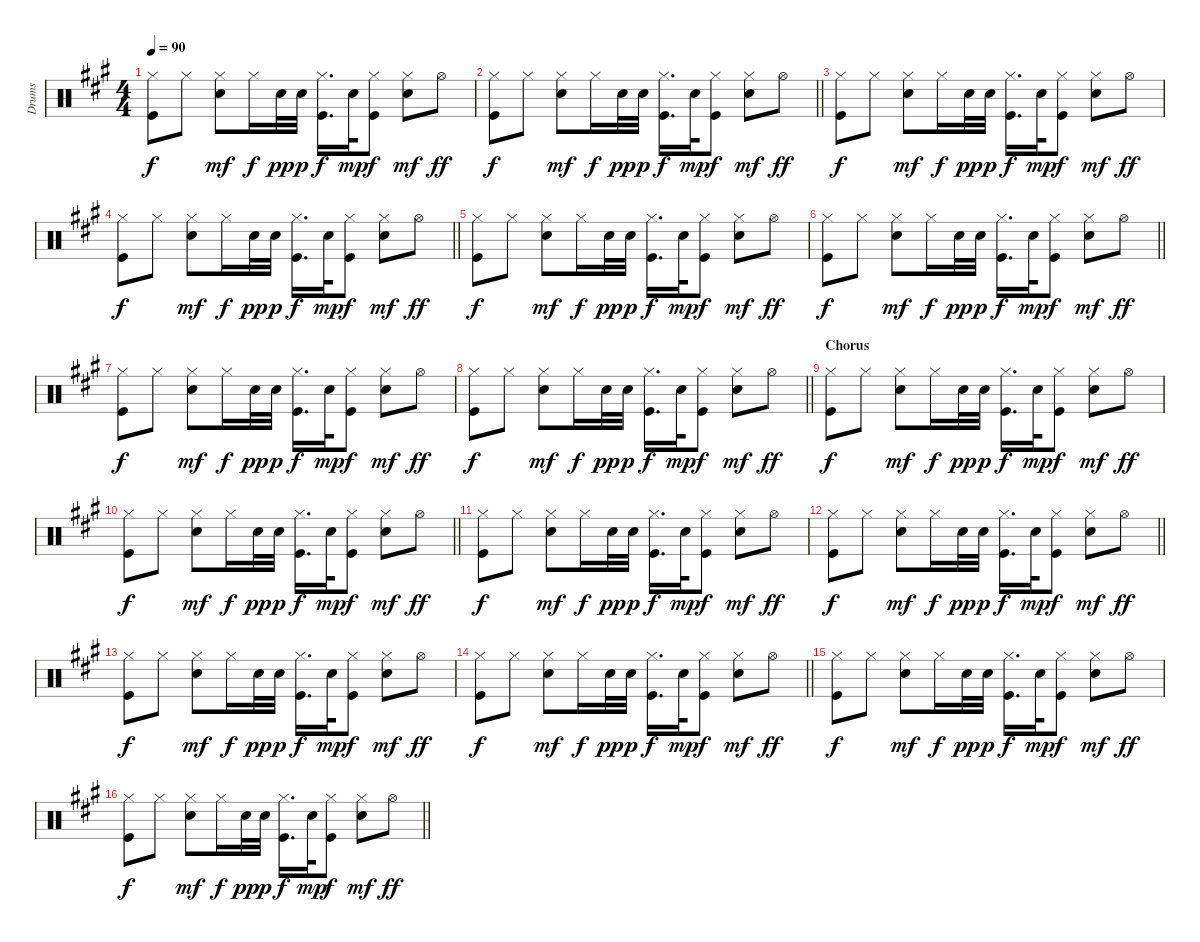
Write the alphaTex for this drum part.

\track ("Drums" "Drums") {instrument percussion}
\staff {score}
\articulation defaults
\ts (4 4)
\tempo 90
\clef neutral
\ks a
("Hi-Hat (closed)" "Kick (hit)").8{dy f} "Hi-Hat (closed)".8 ("Hi-Hat (closed)" "Snare (hit) 2").8{dy mf} "Hi-Hat (closed)".16{dy f} "Snare (hit) 2".32{dy pp} "Snare (hit) 2".32{dy p} ("Hi-Hat (closed)" "Kick (hit)").16{d dy f} "Snare (hit) 2".32{dy mp} ("Hi-Hat (closed)" "Kick (hit)").8{dy f} ("Hi-Hat (closed)" "Snare (hit) 2").8{dy mf} "Hi-Hat (open)".8{dy ff} |
\barLineRight lightlight
("Hi-Hat (closed)" "Kick (hit)").8{dy f} "Hi-Hat (closed)".8 ("Hi-Hat (closed)" "Snare (hit) 2").8{dy mf} "Hi-Hat (closed)".16{dy f} "Snare (hit) 2".32{dy pp} "Snare (hit) 2".32{dy p} ("Hi-Hat (closed)" "Kick (hit)").16{d dy f} "Snare (hit) 2".32{dy mp} ("Hi-Hat (closed)" "Kick (hit)").8{dy f} ("Hi-Hat (closed)" "Snare (hit) 2").8{dy mf} "Hi-Hat (open)".8{dy ff} |
("Hi-Hat (closed)" "Kick (hit)").8{dy f} "Hi-Hat (closed)".8 ("Hi-Hat (closed)" "Snare (hit) 2").8{dy mf} "Hi-Hat (closed)".16{dy f} "Snare (hit) 2".32{dy pp} "Snare (hit) 2".32{dy p} ("Hi-Hat (closed)" "Kick (hit)").16{d dy f} "Snare (hit) 2".32{dy mp} ("Hi-Hat (closed)" "Kick (hit)").8{dy f} ("Hi-Hat (closed)" "Snare (hit) 2").8{dy mf} "Hi-Hat (open)".8{dy ff} |
\barLineRight lightlight
("Hi-Hat (closed)" "Kick (hit)").8{dy f} "Hi-Hat (closed)".8 ("Hi-Hat (closed)" "Snare (hit) 2").8{dy mf} "Hi-Hat (closed)".16{dy f} "Snare (hit) 2".32{dy pp} "Snare (hit) 2".32{dy p} ("Hi-Hat (closed)" "Kick (hit)").16{d dy f} "Snare (hit) 2".32{dy mp} ("Hi-Hat (closed)" "Kick (hit)").8{dy f} ("Hi-Hat (closed)" "Snare (hit) 2").8{dy mf} "Hi-Hat (open)".8{dy ff} |
("Hi-Hat (closed)" "Kick (hit)").8{dy f} "Hi-Hat (closed)".8 ("Hi-Hat (closed)" "Snare (hit) 2").8{dy mf} "Hi-Hat (closed)".16{dy f} "Snare (hit) 2".32{dy pp} "Snare (hit) 2".32{dy p} ("Hi-Hat (closed)" "Kick (hit)").16{d dy f} "Snare (hit) 2".32{dy mp} ("Hi-Hat (closed)" "Kick (hit)").8{dy f} ("Hi-Hat (closed)" "Snare (hit) 2").8{dy mf} "Hi-Hat (open)".8{dy ff} |
\barLineRight lightlight
("Hi-Hat (closed)" "Kick (hit)").8{dy f} "Hi-Hat (closed)".8 ("Hi-Hat (closed)" "Snare (hit) 2").8{dy mf} "Hi-Hat (closed)".16{dy f} "Snare (hit) 2".32{dy pp} "Snare (hit) 2".32{dy p} ("Hi-Hat (closed)" "Kick (hit)").16{d dy f} "Snare (hit) 2".32{dy mp} ("Hi-Hat (closed)" "Kick (hit)").8{dy f} ("Hi-Hat (closed)" "Snare (hit) 2").8{dy mf} "Hi-Hat (open)".8{dy ff} |
("Hi-Hat (closed)" "Kick (hit)").8{dy f} "Hi-Hat (closed)".8 ("Hi-Hat (closed)" "Snare (hit) 2").8{dy mf} "Hi-Hat (closed)".16{dy f} "Snare (hit) 2".32{dy pp} "Snare (hit) 2".32{dy p} ("Hi-Hat (closed)" "Kick (hit)").16{d dy f} "Snare (hit) 2".32{dy mp} ("Hi-Hat (closed)" "Kick (hit)").8{dy f} ("Hi-Hat (closed)" "Snare (hit) 2").8{dy mf} "Hi-Hat (open)".8{dy ff} |
\barLineRight lightlight
("Hi-Hat (closed)" "Kick (hit)").8{dy f} "Hi-Hat (closed)".8 ("Hi-Hat (closed)" "Snare (hit) 2").8{dy mf} "Hi-Hat (closed)".16{dy f} "Snare (hit) 2".32{dy pp} "Snare (hit) 2".32{dy p} ("Hi-Hat (closed)" "Kick (hit)").16{d dy f} "Snare (hit) 2".32{dy mp} ("Hi-Hat (closed)" "Kick (hit)").8{dy f} ("Hi-Hat (closed)" "Snare (hit) 2").8{dy mf} "Hi-Hat (open)".8{dy ff} |
\section ("" "Chorus")
("Hi-Hat (closed)" "Kick (hit)").8{dy f} "Hi-Hat (closed)".8 ("Hi-Hat (closed)" "Snare (hit) 2").8{dy mf} "Hi-Hat (closed)".16{dy f} "Snare (hit) 2".32{dy pp} "Snare (hit) 2".32{dy p} ("Hi-Hat (closed)" "Kick (hit)").16{d dy f} "Snare (hit) 2".32{dy mp} ("Hi-Hat (closed)" "Kick (hit)").8{dy f} ("Hi-Hat (closed)" "Snare (hit) 2").8{dy mf} "Hi-Hat (open)".8{dy ff} |
\barLineRight lightlight
("Hi-Hat (closed)" "Kick (hit)").8{dy f} "Hi-Hat (closed)".8 ("Hi-Hat (closed)" "Snare (hit) 2").8{dy mf} "Hi-Hat (closed)".16{dy f} "Snare (hit) 2".32{dy pp} "Snare (hit) 2".32{dy p} ("Hi-Hat (closed)" "Kick (hit)").16{d dy f} "Snare (hit) 2".32{dy mp} ("Hi-Hat (closed)" "Kick (hit)").8{dy f} ("Hi-Hat (closed)" "Snare (hit) 2").8{dy mf} "Hi-Hat (open)".8{dy ff} |
("Hi-Hat (closed)" "Kick (hit)").8{dy f} "Hi-Hat (closed)".8 ("Hi-Hat (closed)" "Snare (hit) 2").8{dy mf} "Hi-Hat (closed)".16{dy f} "Snare (hit) 2".32{dy pp} "Snare (hit) 2".32{dy p} ("Hi-Hat (closed)" "Kick (hit)").16{d dy f} "Snare (hit) 2".32{dy mp} ("Hi-Hat (closed)" "Kick (hit)").8{dy f} ("Hi-Hat (closed)" "Snare (hit) 2").8{dy mf} "Hi-Hat (open)".8{dy ff} |
\barLineRight lightlight
("Hi-Hat (closed)" "Kick (hit)").8{dy f} "Hi-Hat (closed)".8 ("Hi-Hat (closed)" "Snare (hit) 2").8{dy mf} "Hi-Hat (closed)".16{dy f} "Snare (hit) 2".32{dy pp} "Snare (hit) 2".32{dy p} ("Hi-Hat (closed)" "Kick (hit)").16{d dy f} "Snare (hit) 2".32{dy mp} ("Hi-Hat (closed)" "Kick (hit)").8{dy f} ("Hi-Hat (closed)" "Snare (hit) 2").8{dy mf} "Hi-Hat (open)".8{dy ff} |
("Hi-Hat (closed)" "Kick (hit)").8{dy f} "Hi-Hat (closed)".8 ("Hi-Hat (closed)" "Snare (hit) 2").8{dy mf} "Hi-Hat (closed)".16{dy f} "Snare (hit) 2".32{dy pp} "Snare (hit) 2".32{dy p} ("Hi-Hat (closed)" "Kick (hit)").16{d dy f} "Snare (hit) 2".32{dy mp} ("Hi-Hat (closed)" "Kick (hit)").8{dy f} ("Hi-Hat (closed)" "Snare (hit) 2").8{dy mf} "Hi-Hat (open)".8{dy ff} |
\barLineRight lightlight
("Hi-Hat (closed)" "Kick (hit)").8{dy f} "Hi-Hat (closed)".8 ("Hi-Hat (closed)" "Snare (hit) 2").8{dy mf} "Hi-Hat (closed)".16{dy f} "Snare (hit) 2".32{dy pp} "Snare (hit) 2".32{dy p} ("Hi-Hat (closed)" "Kick (hit)").16{d dy f} "Snare (hit) 2".32{dy mp} ("Hi-Hat (closed)" "Kick (hit)").8{dy f} ("Hi-Hat (closed)" "Snare (hit) 2").8{dy mf} "Hi-Hat (open)".8{dy ff} |
("Hi-Hat (closed)" "Kick (hit)").8{dy f} "Hi-Hat (closed)".8 ("Hi-Hat (closed)" "Snare (hit) 2").8{dy mf} "Hi-Hat (closed)".16{dy f} "Snare (hit) 2".32{dy pp} "Snare (hit) 2".32{dy p} ("Hi-Hat (closed)" "Kick (hit)").16{d dy f} "Snare (hit) 2".32{dy mp} ("Hi-Hat (closed)" "Kick (hit)").8{dy f} ("Hi-Hat (closed)" "Snare (hit) 2").8{dy mf} "Hi-Hat (open)".8{dy ff} |
\barLineRight lightlight
("Hi-Hat (closed)" "Kick (hit)").8{dy f} "Hi-Hat (closed)".8 ("Hi-Hat (closed)" "Snare (hit) 2").8{dy mf} "Hi-Hat (closed)".16{dy f} "Snare (hit) 2".32{dy pp} "Snare (hit) 2".32{dy p} ("Hi-Hat (closed)" "Kick (hit)").16{d dy f} "Snare (hit) 2".32{dy mp} ("Hi-Hat (closed)" "Kick (hit)").8{dy f} ("Hi-Hat (closed)" "Snare (hit) 2").8{dy mf} "Hi-Hat (open)".8{dy ff}
